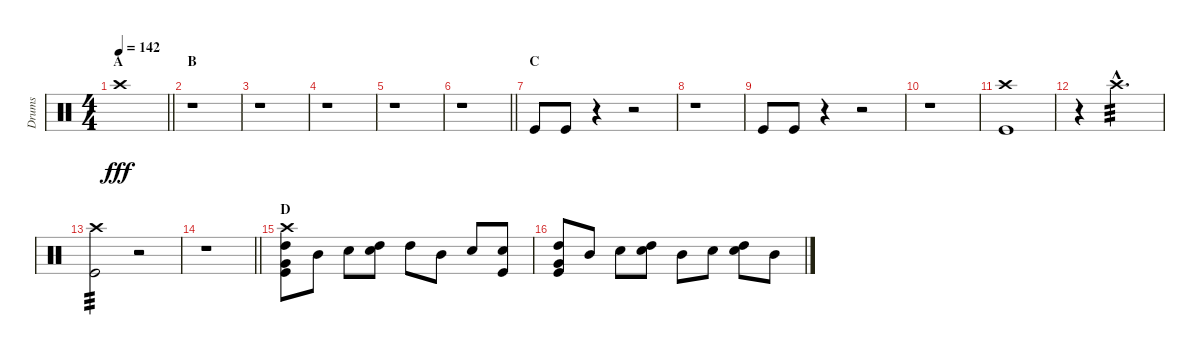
\track ("Drums" "Drums") {instrument percussion}
\staff {score}
\articulation defaults
\ts (4 4)
\section ("" "A")
\tempo 142
\clef neutral
\barLineRight lightlight
\ks c "Crash high (hit)".1{dy fff}
|
\section ("" "B")
r.1 |
r.1 |
r.1 |
r.1 |
\barLineRight lightlight
r.1 |
\section ("" "C")
"Kick (hit)".8 "Kick (hit)".8 r.4 r.2 |
r.1 |
"Kick (hit)".8 "Kick (hit)".8 r.4 r.2 |
r.1 |
("Crash high (hit)" "Kick (hit)").1 |
r.4 "Crash high (hit)"{hac}.2{d tp 3} |
("Crash high (hit)" "Kick (hit)").2{tp 3} r.2 |
\barLineRight lightlight
r.1 |
\section ("" "D")
("Crash high (hit)" "High Tom (hit)" "Very Low Tom (hit)" "Kick (hit)").8 "Mid Tom (hit)".8 "Snare (hit) 2".8 ("High Tom (hit)" "Snare (hit) 2").8 "High Tom (hit)".8 "Mid Tom (hit)".8 "Snare (hit) 2".8 ("Snare (hit) 2" "Kick (hit)").8 |
("High Tom (hit)" "Very Low Tom (hit)" "Kick (hit)").8 "Mid Tom (hit)".8 "Snare (hit) 2".8 ("High Tom (hit)" "Snare (hit) 2").8 "Mid Tom (hit)".8 "Snare (hit) 2".8 ("High Tom (hit)" "Snare (hit) 2").8 "Mid Tom (hit)".8
